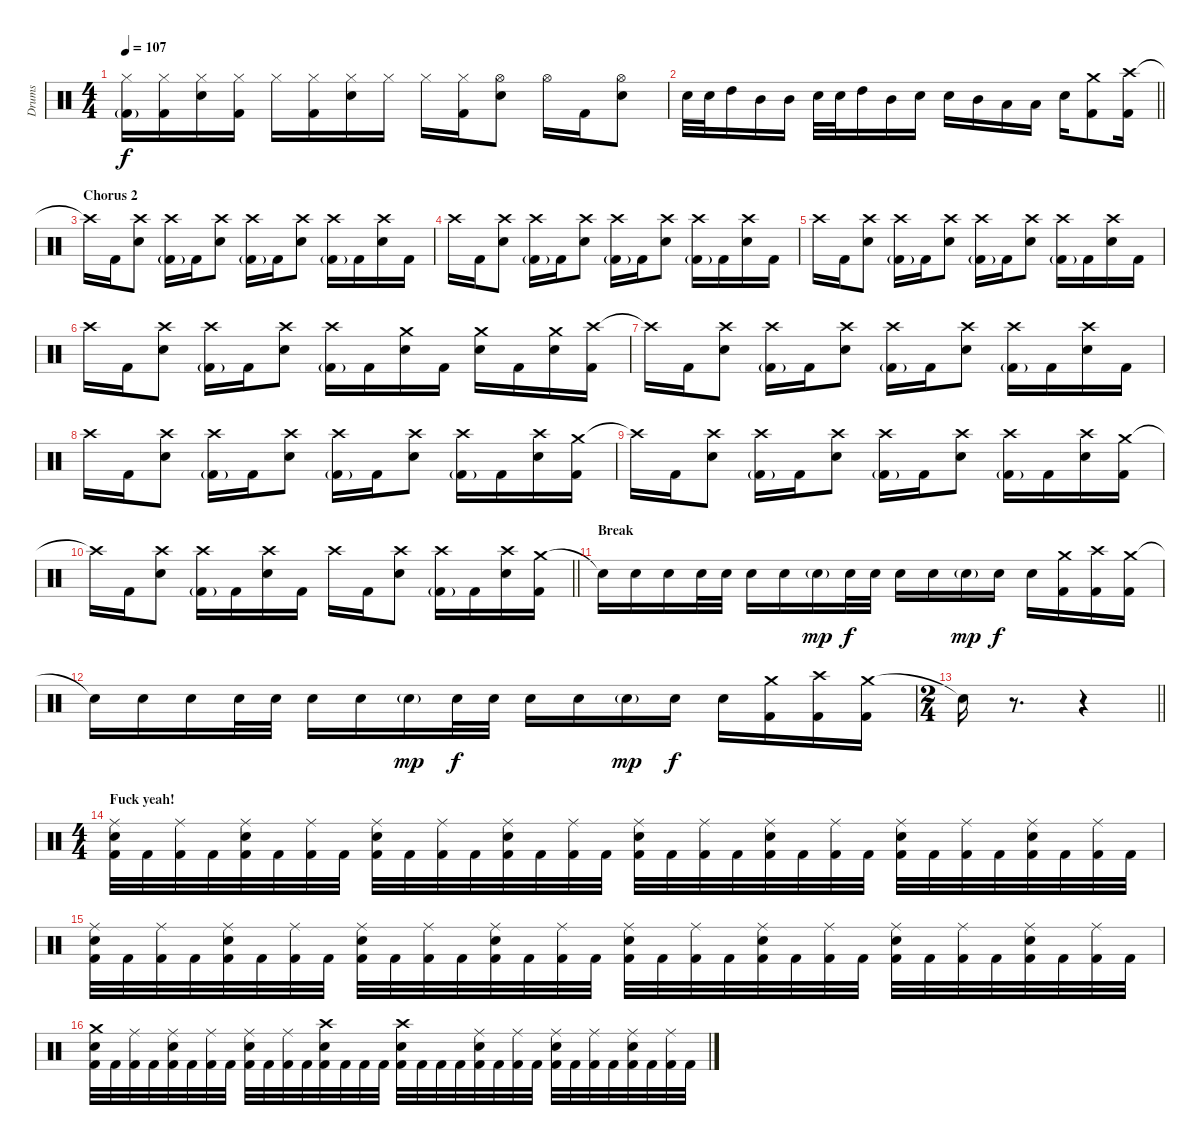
\track ("Drums" "Drums") {instrument percussion}
\staff {score}
\articulation defaults
\ts (4 4)
\tempo 107
\clef neutral
\ks c
("Hi-Hat (closed)" "Kick (hit) 2"{g}).16{dy f} ("Hi-Hat (closed)" "Kick (hit) 2").16 ("Hi-Hat (closed)" "Electric Snare (hit)").16 ("Hi-Hat (closed)" "Kick (hit) 2").16 "Hi-Hat (closed)".16 ("Hi-Hat (closed)" "Kick (hit) 2").16 ("Hi-Hat (closed)" "Electric Snare (hit)").16 "Hi-Hat (closed)".16 "Hi-Hat (closed)".16 ("Hi-Hat (closed)" "Kick (hit) 2").16 ("Hi-Hat (open)" "Electric Snare (hit)").8 "Hi-Hat (open)".16 "Kick (hit) 2".16 ("Hi-Hat (open)" "Electric Snare (hit)").8 |
\barLineRight lightlight "Electric Snare (hit)".32 "Electric Snare (hit)".32 "High Tom (hit)".16 "Mid Tom (hit)".16 "Mid Tom (hit)".16 "Electric Snare (hit)".32 "Electric Snare (hit)".32 "High Tom (hit)".16 "Mid Tom (hit)".16 "Electric Snare (hit)".16 "Electric Snare (hit)".16 "Mid Tom (hit)".16 "Low Tom (hit)".16 "Low Tom (hit)".16 "Electric Snare (hit)".16
("Crash medium (hit)" "Kick (hit) 2").8 ("Crash high (hit)" "Kick (hit) 2").16 |
\section ("" "Chorus 2")
"Crash high (hit)"{t}.16 "Kick (hit) 2".16 ("Crash high (hit)" "Electric Snare (hit)").8 ("Crash high (hit)" "Kick (hit) 2"{g}).16 "Kick (hit) 2".16 ("Crash high (hit)" "Electric Snare (hit)").8 ("Crash high (hit)" "Kick (hit) 2"{g}).16 "Kick (hit) 2".16 ("Crash high (hit)" "Electric Snare (hit)").8 ("Crash high (hit)" "Kick (hit) 2"{g}).16 "Kick (hit) 2".16 ("Crash high (hit)" "Electric Snare (hit)").16 "Kick (hit) 2".16 |
"Crash high (hit)".16 "Kick (hit) 2".16 ("Crash high (hit)" "Electric Snare (hit)").8 ("Crash high (hit)" "Kick (hit) 2"{g}).16 "Kick (hit) 2".16 ("Crash high (hit)" "Electric Snare (hit)").8 ("Crash high (hit)" "Kick (hit) 2"{g}).16 "Kick (hit) 2".16 ("Crash high (hit)" "Electric Snare (hit)").8 ("Crash high (hit)" "Kick (hit) 2"{g}).16 "Kick (hit) 2".16 ("Crash high (hit)" "Electric Snare (hit)").16 "Kick (hit) 2".16 |
"Crash high (hit)".16 "Kick (hit) 2".16 ("Crash high (hit)" "Electric Snare (hit)").8 ("Crash high (hit)" "Kick (hit) 2"{g}).16 "Kick (hit) 2".16 ("Crash high (hit)" "Electric Snare (hit)").8 ("Crash high (hit)" "Kick (hit) 2"{g}).16 "Kick (hit) 2".16 ("Crash high (hit)" "Electric Snare (hit)").8 ("Crash high (hit)" "Kick (hit) 2"{g}).16 "Kick (hit) 2".16 ("Crash high (hit)" "Electric Snare (hit)").16 "Kick (hit) 2".16 |
"Crash high (hit)".16 "Kick (hit) 2".16 ("Crash high (hit)" "Electric Snare (hit)").8 ("Crash high (hit)" "Kick (hit) 2"{g}).16 "Kick (hit) 2".16 ("Crash high (hit)" "Electric Snare (hit)").8 ("Crash high (hit)" "Kick (hit) 2"{g}).16 "Kick (hit) 2".16 ("Crash medium (hit)" "Electric Snare (hit)").16 "Kick (hit) 2".16 ("Crash medium (hit)" "Electric Snare (hit)").16 "Kick (hit) 2".16 ("Crash medium (hit)" "Electric Snare (hit)").16 ("Crash high (hit)" "Kick (hit) 2").16 |
"Crash high (hit)"{t}.16 "Kick (hit) 2".16 ("Crash high (hit)" "Electric Snare (hit)").8 ("Crash high (hit)" "Kick (hit) 2"{g}).16 "Kick (hit) 2".16 ("Crash high (hit)" "Electric Snare (hit)").8 ("Crash high (hit)" "Kick (hit) 2"{g}).16 "Kick (hit) 2".16 ("Crash high (hit)" "Electric Snare (hit)").8 ("Crash high (hit)" "Kick (hit) 2"{g}).16 "Kick (hit) 2".16 ("Crash high (hit)" "Electric Snare (hit)").16 "Kick (hit) 2".16 |
"Crash high (hit)".16 "Kick (hit) 2".16 ("Crash high (hit)" "Electric Snare (hit)").8 ("Crash high (hit)" "Kick (hit) 2"{g}).16 "Kick (hit) 2".16 ("Crash high (hit)" "Electric Snare (hit)").8 ("Crash high (hit)" "Kick (hit) 2"{g}).16 "Kick (hit) 2".16 ("Crash high (hit)" "Electric Snare (hit)").8 ("Crash high (hit)" "Kick (hit) 2"{g}).16 "Kick (hit) 2".16 ("Crash high (hit)" "Electric Snare (hit)").16 ("Crash medium (hit)" "Kick (hit) 2").16 |
"Crash high (hit)"{t}.16 "Kick (hit) 2".16 ("Crash high (hit)" "Electric Snare (hit)").8 ("Crash high (hit)" "Kick (hit) 2"{g}).16 "Kick (hit) 2".16 ("Crash high (hit)" "Electric Snare (hit)").8 ("Crash high (hit)" "Kick (hit) 2"{g}).16 "Kick (hit) 2".16 ("Crash high (hit)" "Electric Snare (hit)").8 ("Crash high (hit)" "Kick (hit) 2"{g}).16 "Kick (hit) 2".16 ("Crash high (hit)" "Electric Snare (hit)").16 ("Crash medium (hit)" "Kick (hit) 2").16 |
\barLineRight lightlight "Crash high (hit)"{t}.16 "Kick (hit) 2".16
("Crash high (hit)" "Electric Snare (hit)").8 ("Crash high (hit)" "Kick (hit) 2"{g}).16 "Kick (hit) 2".16 ("Crash high (hit)" "Electric Snare (hit)").16 "Kick (hit) 2".16 "Crash high (hit)".16 "Kick (hit) 2".16 ("Crash high (hit)" "Electric Snare (hit)").8 ("Crash high (hit)" "Kick (hit) 2"{g}).16 "Kick (hit) 2".16 ("Crash high (hit)" "Electric Snare (hit)").16 ("Crash medium (hit)" "Kick (hit) 2").16 |
\section ("" "Break")
"Snare (hit)"{t}.16 "Electric Snare (hit)".16 "Electric Snare (hit)".16 "Electric Snare (hit)".32 "Electric Snare (hit)".32 "Electric Snare (hit)".16 "Electric Snare (hit)".16 "Electric Snare (hit)"{g}.16{dy mp} "Electric Snare (hit)".32{dy f} "Electric Snare (hit)".32 "Electric Snare (hit)".16 "Electric Snare (hit)".16 "Electric Snare (hit)"{g}.16{dy mp} "Electric Snare (hit)".16{dy f} "Electric Snare (hit)".16 ("Crash medium (hit)" "Kick (hit) 2").16 ("Crash high (hit)" "Kick (hit) 2").16 ("Crash medium (hit)" "Kick (hit) 2").16 |
"Snare (hit)"{t}.16 "Electric Snare (hit)".16 "Electric Snare (hit)".16 "Electric Snare (hit)".32 "Electric Snare (hit)".32 "Electric Snare (hit)".16 "Electric Snare (hit)".16 "Electric Snare (hit)"{g}.16{dy mp} "Electric Snare (hit)".32{dy f} "Electric Snare (hit)".32 "Electric Snare (hit)".16 "Electric Snare (hit)".16 "Electric Snare (hit)"{g}.16{dy mp} "Electric Snare (hit)".16{dy f} "Electric Snare (hit)".16 ("Crash medium (hit)" "Kick (hit) 2").16 ("Crash high (hit)" "Kick (hit) 2").16 ("Crash medium (hit)" "Kick (hit) 2").16 |
\ts (2 4)
\barLineRight lightlight "Snare (hit)"{t}.16
r.8{d} r.4 |
\ts (4 4)
\section ("" "Fuck yeah!")
("Ride (middle)" "Electric Snare (hit)" "Kick (hit) 2").32 "Kick (hit) 2".32 ("Ride (middle)" "Kick (hit) 2").32 "Kick (hit) 2".32 ("Ride (middle)" "Electric Snare (hit)" "Kick (hit) 2").32 "Kick (hit) 2".32 ("Ride (middle)" "Kick (hit) 2").32 "Kick (hit) 2".32 ("Ride (middle)" "Electric Snare (hit)" "Kick (hit) 2").32 "Kick (hit) 2".32 ("Ride (middle)" "Kick (hit) 2").32 "Kick (hit) 2".32 ("Ride (middle)" "Electric Snare (hit)" "Kick (hit) 2").32 "Kick (hit) 2".32 ("Ride (middle)" "Kick (hit) 2").32 "Kick (hit) 2".32 ("Ride (middle)" "Electric Snare (hit)" "Kick (hit) 2").32 "Kick (hit) 2".32 ("Ride (middle)" "Kick (hit) 2").32 "Kick (hit) 2".32 ("Ride (middle)" "Electric Snare (hit)" "Kick (hit) 2").32 "Kick (hit) 2".32 ("Ride (middle)" "Kick (hit) 2").32 "Kick (hit) 2".32 ("Ride (middle)" "Electric Snare (hit)" "Kick (hit) 2").32 "Kick (hit) 2".32 ("Ride (middle)" "Kick (hit) 2").32 "Kick (hit) 2".32 ("Ride (middle)" "Electric Snare (hit)" "Kick (hit) 2").32 "Kick (hit) 2".32 ("Ride (middle)" "Kick (hit) 2").32 "Kick (hit) 2".32 |
("Ride (middle)" "Electric Snare (hit)" "Kick (hit) 2").32 "Kick (hit) 2".32 ("Ride (middle)" "Kick (hit) 2").32 "Kick (hit) 2".32 ("Ride (middle)" "Electric Snare (hit)" "Kick (hit) 2").32 "Kick (hit) 2".32 ("Ride (middle)" "Kick (hit) 2").32 "Kick (hit) 2".32 ("Ride (middle)" "Electric Snare (hit)" "Kick (hit) 2").32 "Kick (hit) 2".32 ("Ride (middle)" "Kick (hit) 2").32 "Kick (hit) 2".32 ("Ride (middle)" "Electric Snare (hit)" "Kick (hit) 2").32 "Kick (hit) 2".32 ("Ride (middle)" "Kick (hit) 2").32 "Kick (hit) 2".32 ("Ride (middle)" "Electric Snare (hit)" "Kick (hit) 2").32 "Kick (hit) 2".32 ("Ride (middle)" "Kick (hit) 2").32 "Kick (hit) 2".32 ("Ride (middle)" "Electric Snare (hit)" "Kick (hit) 2").32 "Kick (hit) 2".32 ("Ride (middle)" "Kick (hit) 2").32 "Kick (hit) 2".32 ("Ride (middle)" "Electric Snare (hit)" "Kick (hit) 2").32 "Kick (hit) 2".32 ("Ride (middle)" "Kick (hit) 2").32 "Kick (hit) 2".32 ("Ride (middle)" "Electric Snare (hit)" "Kick (hit) 2").32 "Kick (hit) 2".32 ("Ride (middle)" "Kick (hit) 2").32 "Kick (hit) 2".32 |
("Crash medium (hit)" "Electric Snare (hit)" "Kick (hit) 2").32 "Kick (hit) 2".32 ("Ride (middle)" "Kick (hit) 2").32 "Kick (hit) 2".32 ("Ride (middle)" "Electric Snare (hit)" "Kick (hit) 2").32 "Kick (hit) 2".32 ("Ride (middle)" "Kick (hit) 2").32 "Kick (hit) 2".32 ("Ride (middle)" "Electric Snare (hit)" "Kick (hit) 2").32 "Kick (hit) 2".32 ("Ride (middle)" "Kick (hit) 2").32 "Kick (hit) 2".32 ("Crash high (hit)" "Electric Snare (hit)" "Kick (hit) 2").32 "Kick (hit) 2".32 "Kick (hit) 2".32 "Kick (hit) 2".32 ("Crash high (hit)" "Electric Snare (hit)" "Kick (hit) 2").32 "Kick (hit) 2".32 "Kick (hit) 2".32 "Kick (hit) 2".32 ("Ride (middle)" "Electric Snare (hit)" "Kick (hit) 2").32 "Kick (hit) 2".32 ("Ride (middle)" "Kick (hit) 2").32 "Kick (hit) 2".32 ("Ride (middle)" "Electric Snare (hit)" "Kick (hit) 2").32 "Kick (hit) 2".32 ("Ride (middle)" "Kick (hit) 2").32 "Kick (hit) 2".32 ("Ride (middle)" "Electric Snare (hit)" "Kick (hit) 2").32 "Kick (hit) 2".32 ("Ride (middle)" "Kick (hit) 2").32 "Kick (hit) 2".32
